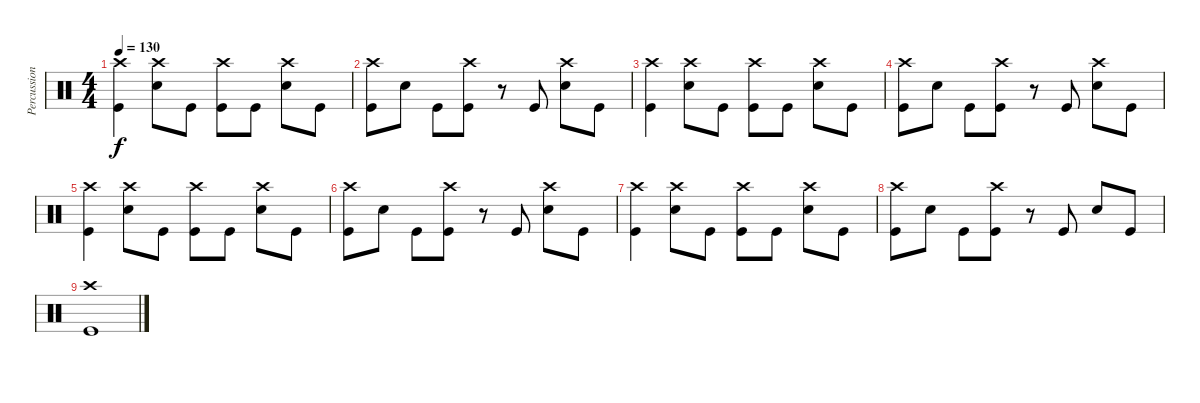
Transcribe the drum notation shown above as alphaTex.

\track ("Percussion" "Percussion") {instrument percussion}
\staff {score}
\articulation defaults
\ts (4 4)
\tempo 130
\clef neutral
\ks c
("Crash high (hit)" "Kick (hit)").4{dy f} ("Crash high (hit)" "Electric Snare (hit)").8 "Kick (hit)".8 ("Crash high (hit)" "Kick (hit)").8 "Kick (hit)".8 ("Crash high (hit)" "Electric Snare (hit)").8 "Kick (hit)".8 |
("Crash high (hit)" "Kick (hit)").8 "Electric Snare (hit)".8 "Kick (hit)".8 ("Crash high (hit)" "Kick (hit)").8 r.8 "Kick (hit)".8 ("Crash high (hit)" "Electric Snare (hit)").8 "Kick (hit)".8 |
("Crash high (hit)" "Kick (hit)").4 ("Crash high (hit)" "Electric Snare (hit)").8 "Kick (hit)".8 ("Crash high (hit)" "Kick (hit)").8 "Kick (hit)".8 ("Crash high (hit)" "Electric Snare (hit)").8 "Kick (hit)".8 |
("Crash high (hit)" "Kick (hit)").8 "Electric Snare (hit)".8 "Kick (hit)".8 ("Crash high (hit)" "Kick (hit)").8 r.8 "Kick (hit)".8 ("Crash high (hit)" "Electric Snare (hit)").8 "Kick (hit)".8 |
("Crash high (hit)" "Kick (hit)").4 ("Crash high (hit)" "Electric Snare (hit)").8 "Kick (hit)".8 ("Crash high (hit)" "Kick (hit)").8 "Kick (hit)".8 ("Crash high (hit)" "Electric Snare (hit)").8 "Kick (hit)".8 |
("Crash high (hit)" "Kick (hit)").8 "Electric Snare (hit)".8 "Kick (hit)".8 ("Crash high (hit)" "Kick (hit)").8 r.8 "Kick (hit)".8 ("Crash high (hit)" "Electric Snare (hit)").8 "Kick (hit)".8 |
("Crash high (hit)" "Kick (hit)").4 ("Crash high (hit)" "Electric Snare (hit)").8 "Kick (hit)".8 ("Crash high (hit)" "Kick (hit)").8 "Kick (hit)".8 ("Crash high (hit)" "Electric Snare (hit)").8 "Kick (hit)".8 |
("Crash high (hit)" "Kick (hit)").8 "Electric Snare (hit)".8 "Kick (hit)".8 ("Crash high (hit)" "Kick (hit)").8 r.8 "Kick (hit)".8 "Electric Snare (hit)".8 "Kick (hit)".8 |
("Crash high (hit)" "Kick (hit)").1
